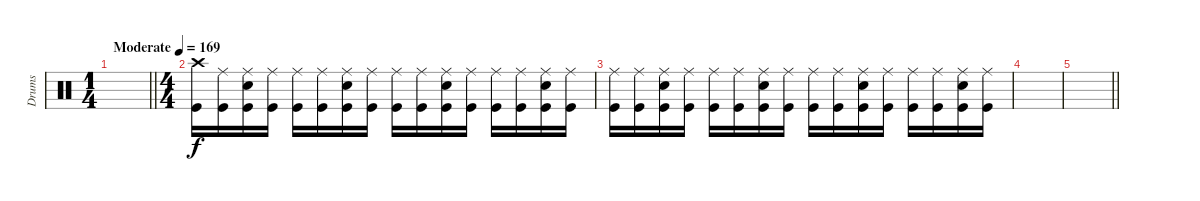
\track ("Drums" "Drums") {instrument percussion}
\staff
\articulation defaults
\ts (1 4)
\tempo (169 "Moderate")
\clef neutral
\barLineRight lightlight
\ks c
|
\ts (4 4)
("Crash high (hit)" "Kick (hit)").16 ("Ride (middle)" "Kick (hit)").16 ("Ride (middle)" "Electric Snare (hit)" "Kick (hit)").16 ("Ride (middle)" "Kick (hit)").16 ("Ride (middle)" "Kick (hit)").16 ("Ride (middle)" "Kick (hit)").16 ("Ride (middle)" "Electric Snare (hit)" "Kick (hit)").16 ("Ride (middle)" "Kick (hit)").16 ("Ride (middle)" "Kick (hit)").16 ("Ride (middle)" "Kick (hit)").16 ("Ride (middle)" "Electric Snare (hit)" "Kick (hit)").16 ("Ride (middle)" "Kick (hit)").16 ("Ride (middle)" "Kick (hit)").16 ("Ride (middle)" "Kick (hit)").16 ("Ride (middle)" "Electric Snare (hit)" "Kick (hit)").16 ("Ride (middle)" "Kick (hit)").16 |
("Ride (middle)" "Kick (hit)").16 ("Ride (middle)" "Kick (hit)").16 ("Ride (middle)" "Electric Snare (hit)" "Kick (hit)").16 ("Ride (middle)" "Kick (hit)").16 ("Ride (middle)" "Kick (hit)").16 ("Ride (middle)" "Kick (hit)").16 ("Ride (middle)" "Electric Snare (hit)" "Kick (hit)").16 ("Ride (middle)" "Kick (hit)").16 ("Ride (middle)" "Kick (hit)").16 ("Ride (middle)" "Kick (hit)").16 ("Ride (middle)" "Electric Snare (hit)" "Kick (hit)").16 ("Ride (middle)" "Kick (hit)").16 ("Ride (middle)" "Kick (hit)").16 ("Ride (middle)" "Kick (hit)").16 ("Ride (middle)" "Electric Snare (hit)" "Kick (hit)").16 ("Ride (middle)" "Kick (hit)").16 |
|
\barLineRight lightlight
